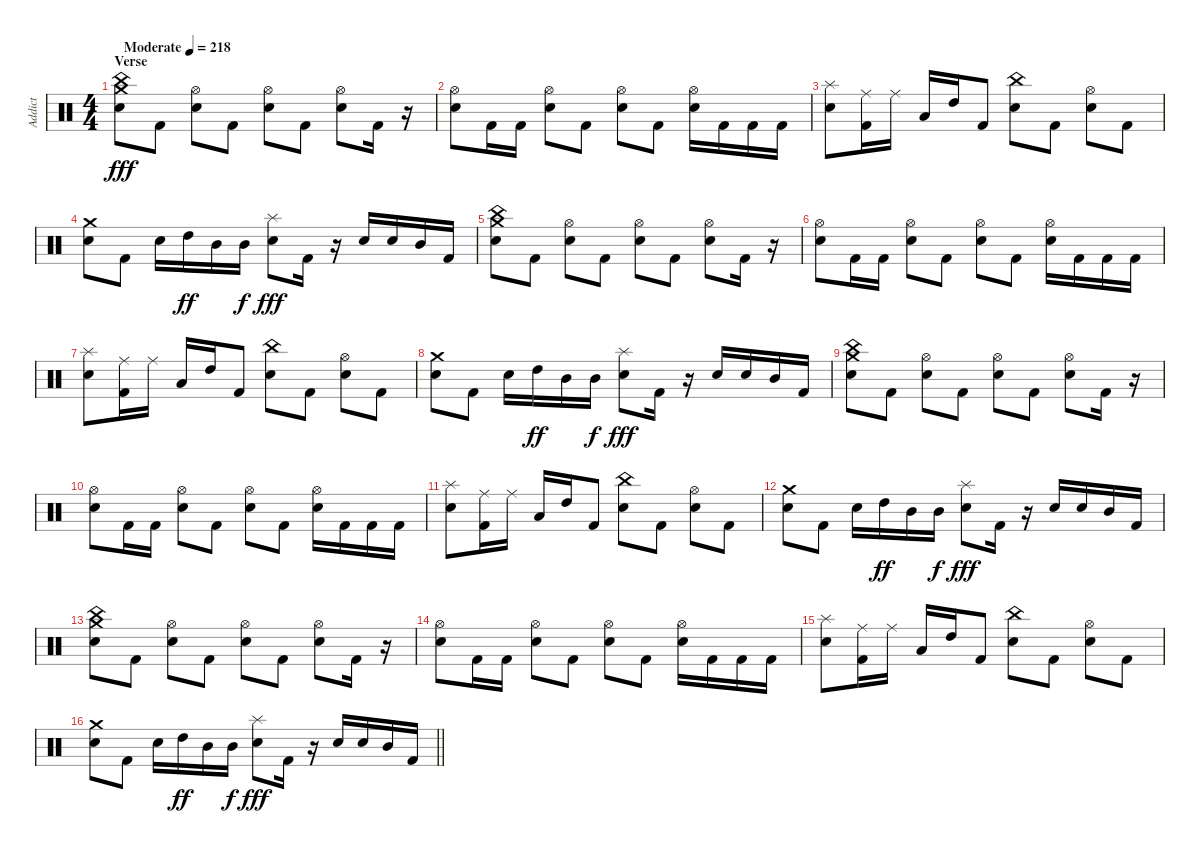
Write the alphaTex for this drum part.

\track ("Addict" "Addict") {instrument percussion}
\staff {score}
\articulation defaults
\ts (4 4)
\section ("" "Verse")
\tempo (218 "Moderate")
\clef neutral
\ks c
("Snare (hit) 2" "Crash medium (hit)" "China (hit)").8{dy fff} "Kick (hit) 2".8 ("Snare (hit) 2" "Hi-Hat (open)").8 "Kick (hit) 2".8 ("Snare (hit) 2" "Hi-Hat (open)").8 "Kick (hit) 2".8 ("Snare (hit) 2" "Hi-Hat (open)").8 "Kick (hit) 2".16 r.16 |
("Snare (hit) 2" "Hi-Hat (open)").8 "Kick (hit) 2".16 "Kick (hit) 2".16 ("Snare (hit) 2" "Hi-Hat (open)").8 "Kick (hit) 2".8 ("Snare (hit) 2" "Hi-Hat (open)").8 "Kick (hit) 2".8 ("Snare (hit) 2" "Hi-Hat (open)").16 "Kick (hit) 2".16 "Kick (hit) 2".16 "Kick (hit) 2".16 |
("Snare (hit) 2" "Splash (hit)").8 ("Kick (hit) 2" "Ride (middle)").16 "Ride (middle)".16 "Low Tom (hit)".16 "High Tom (hit)".16 "Kick (hit) 2".8 ("Snare (hit) 2" "China (hit)").8 "Kick (hit) 2".8 ("Snare (hit) 2" "Hi-Hat (open)").8 "Kick (hit) 2".8 |
("Snare (hit) 2" "Crash medium (hit)").8 "Kick (hit) 2".8 "Snare (hit) 2".16 "High Tom (hit)".16{dy ff} "Mid Tom (hit)".16 "Mid Tom (hit)".16{dy f} ("Snare (hit) 2" "Splash (hit)").8{dy fff} "Kick (hit) 2".16 r.16 "Snare (hit) 2".16 "Snare (hit) 2".16 "Mid Tom (hit)".16 "Kick (hit) 2".16 |
("Snare (hit) 2" "Crash medium (hit)" "China (hit)").8 "Kick (hit) 2".8 ("Snare (hit) 2" "Hi-Hat (open)").8 "Kick (hit) 2".8 ("Snare (hit) 2" "Hi-Hat (open)").8 "Kick (hit) 2".8 ("Snare (hit) 2" "Hi-Hat (open)").8 "Kick (hit) 2".16 r.16 |
("Snare (hit) 2" "Hi-Hat (open)").8 "Kick (hit) 2".16 "Kick (hit) 2".16 ("Snare (hit) 2" "Hi-Hat (open)").8 "Kick (hit) 2".8 ("Snare (hit) 2" "Hi-Hat (open)").8 "Kick (hit) 2".8 ("Snare (hit) 2" "Hi-Hat (open)").16 "Kick (hit) 2".16 "Kick (hit) 2".16 "Kick (hit) 2".16 |
("Snare (hit) 2" "Splash (hit)").8 ("Kick (hit) 2" "Ride (middle)").16 "Ride (middle)".16 "Low Tom (hit)".16 "High Tom (hit)".16 "Kick (hit) 2".8 ("Snare (hit) 2" "China (hit)").8 "Kick (hit) 2".8 ("Snare (hit) 2" "Hi-Hat (open)").8 "Kick (hit) 2".8 |
("Snare (hit) 2" "Crash medium (hit)").8 "Kick (hit) 2".8 "Snare (hit) 2".16 "High Tom (hit)".16{dy ff} "Mid Tom (hit)".16 "Mid Tom (hit)".16{dy f} ("Snare (hit) 2" "Splash (hit)").8{dy fff} "Kick (hit) 2".16 r.16 "Snare (hit) 2".16 "Snare (hit) 2".16 "Mid Tom (hit)".16 "Kick (hit) 2".16 |
("Snare (hit) 2" "Crash medium (hit)" "China (hit)").8 "Kick (hit) 2".8 ("Snare (hit) 2" "Hi-Hat (open)").8 "Kick (hit) 2".8 ("Snare (hit) 2" "Hi-Hat (open)").8 "Kick (hit) 2".8 ("Snare (hit) 2" "Hi-Hat (open)").8 "Kick (hit) 2".16 r.16 |
("Snare (hit) 2" "Hi-Hat (open)").8 "Kick (hit) 2".16 "Kick (hit) 2".16 ("Snare (hit) 2" "Hi-Hat (open)").8 "Kick (hit) 2".8 ("Snare (hit) 2" "Hi-Hat (open)").8 "Kick (hit) 2".8 ("Snare (hit) 2" "Hi-Hat (open)").16 "Kick (hit) 2".16 "Kick (hit) 2".16 "Kick (hit) 2".16 |
("Snare (hit) 2" "Splash (hit)").8 ("Kick (hit) 2" "Ride (middle)").16 "Ride (middle)".16 "Low Tom (hit)".16 "High Tom (hit)".16 "Kick (hit) 2".8 ("Snare (hit) 2" "China (hit)").8 "Kick (hit) 2".8 ("Snare (hit) 2" "Hi-Hat (open)").8 "Kick (hit) 2".8 |
("Snare (hit) 2" "Crash medium (hit)").8 "Kick (hit) 2".8 "Snare (hit) 2".16 "High Tom (hit)".16{dy ff} "Mid Tom (hit)".16 "Mid Tom (hit)".16{dy f} ("Snare (hit) 2" "Splash (hit)").8{dy fff} "Kick (hit) 2".16 r.16 "Snare (hit) 2".16 "Snare (hit) 2".16 "Mid Tom (hit)".16 "Kick (hit) 2".16 |
("Snare (hit) 2" "Crash medium (hit)" "China (hit)").8 "Kick (hit) 2".8 ("Snare (hit) 2" "Hi-Hat (open)").8 "Kick (hit) 2".8 ("Snare (hit) 2" "Hi-Hat (open)").8 "Kick (hit) 2".8 ("Snare (hit) 2" "Hi-Hat (open)").8 "Kick (hit) 2".16 r.16 |
("Snare (hit) 2" "Hi-Hat (open)").8 "Kick (hit) 2".16 "Kick (hit) 2".16 ("Snare (hit) 2" "Hi-Hat (open)").8 "Kick (hit) 2".8 ("Snare (hit) 2" "Hi-Hat (open)").8 "Kick (hit) 2".8 ("Snare (hit) 2" "Hi-Hat (open)").16 "Kick (hit) 2".16 "Kick (hit) 2".16 "Kick (hit) 2".16 |
("Snare (hit) 2" "Splash (hit)").8 ("Kick (hit) 2" "Ride (middle)").16 "Ride (middle)".16 "Low Tom (hit)".16 "High Tom (hit)".16 "Kick (hit) 2".8 ("Snare (hit) 2" "China (hit)").8 "Kick (hit) 2".8 ("Snare (hit) 2" "Hi-Hat (open)").8 "Kick (hit) 2".8 |
\barLineRight lightlight
("Snare (hit) 2" "Crash medium (hit)").8 "Kick (hit) 2".8 "Snare (hit) 2".16 "High Tom (hit)".16{dy ff} "Mid Tom (hit)".16 "Mid Tom (hit)".16{dy f} ("Snare (hit) 2" "Splash (hit)").8{dy fff} "Kick (hit) 2".16 r.16 "Snare (hit) 2".16 "Snare (hit) 2".16 "Mid Tom (hit)".16 "Kick (hit) 2".16
